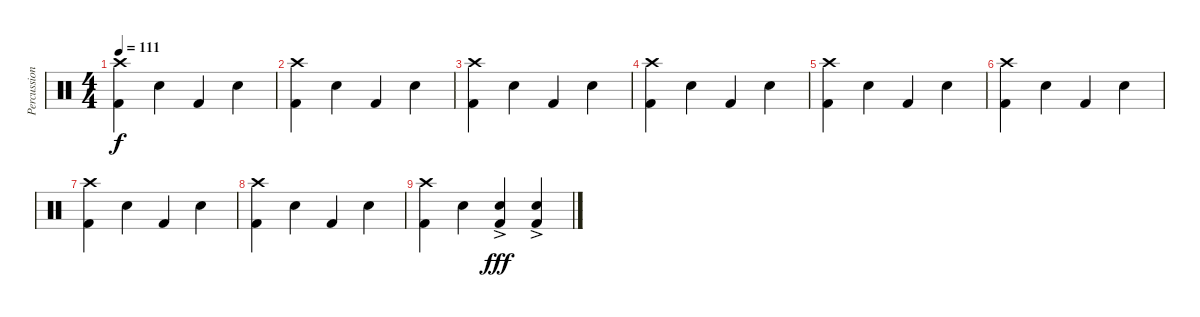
\track ("Percussion" "Percussion") {instrument percussion}
\staff {score}
\articulation defaults
\ts (4 4)
\tempo 111
\clef neutral
\ks c
("Crash high (hit)" "Kick (hit) 2").4{dy f} "Snare (hit) 2".4 "Kick (hit) 2".4 "Snare (hit) 2".4 |
("Crash high (hit)" "Kick (hit) 2").4 "Snare (hit) 2".4 "Kick (hit) 2".4 "Snare (hit) 2".4 |
("Crash high (hit)" "Kick (hit) 2").4 "Snare (hit) 2".4 "Kick (hit) 2".4 "Snare (hit) 2".4 |
("Crash high (hit)" "Kick (hit) 2").4 "Snare (hit) 2".4 "Kick (hit) 2".4 "Snare (hit) 2".4 |
("Crash high (hit)" "Kick (hit) 2").4 "Snare (hit) 2".4 "Kick (hit) 2".4 "Snare (hit) 2".4 |
("Crash high (hit)" "Kick (hit) 2").4 "Snare (hit) 2".4 "Kick (hit) 2".4 "Snare (hit) 2".4 |
("Crash high (hit)" "Kick (hit) 2").4 "Snare (hit) 2".4 "Kick (hit) 2".4 "Snare (hit) 2".4 |
("Crash high (hit)" "Kick (hit) 2").4 "Snare (hit) 2".4 "Kick (hit) 2".4 "Snare (hit) 2".4 |
("Crash high (hit)" "Kick (hit) 2").4 "Snare (hit) 2".4 ("Snare (hit) 2"{ac} "Kick (hit) 2"{ac}).4{dy fff} ("Snare (hit) 2"{ac} "Kick (hit) 2"{ac}).4
